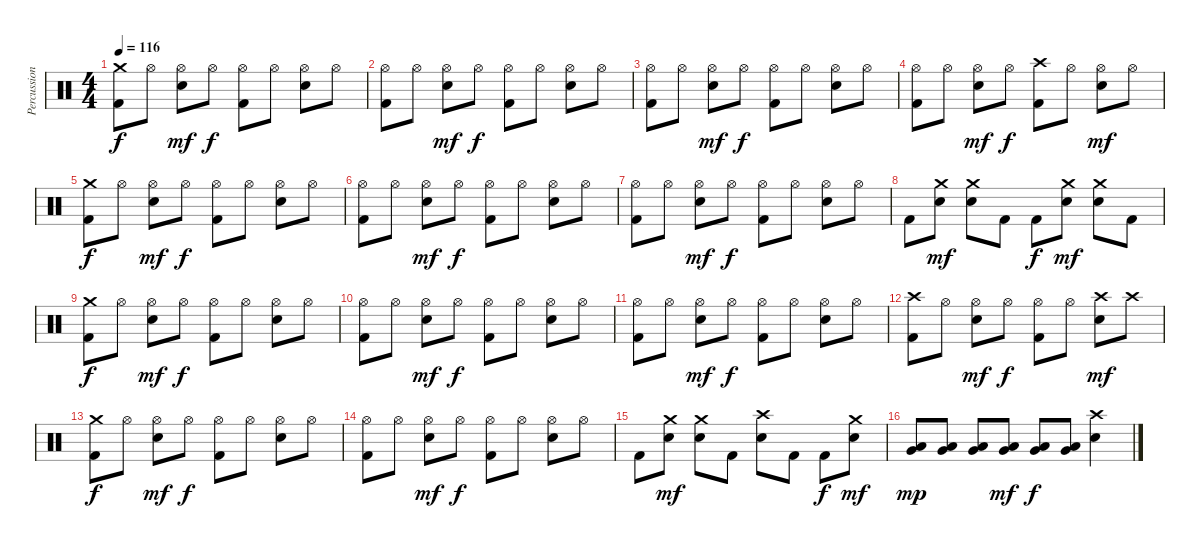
\track ("Percussion" "Percussion") {instrument percussion}
\staff {score}
\articulation defaults
\ts (4 4)
\tempo 116
\clef neutral
\ks c
("Kick (hit) 2" "Crash medium (hit)").8{dy f} "Hi-Hat (open)".8 ("Snare (hit) 2" "Hi-Hat (open)").8{dy mf} "Hi-Hat (open)".8{dy f} ("Kick (hit) 2" "Hi-Hat (open)").8 "Hi-Hat (open)".8 ("Snare (hit) 2" "Hi-Hat (open)").8 "Hi-Hat (open)".8 |
("Kick (hit) 2" "Hi-Hat (open)").8 "Hi-Hat (open)".8 ("Snare (hit) 2" "Hi-Hat (open)").8{dy mf} "Hi-Hat (open)".8{dy f} ("Kick (hit) 2" "Hi-Hat (open)").8 "Hi-Hat (open)".8 ("Snare (hit) 2" "Hi-Hat (open)").8 "Hi-Hat (open)".8 |
("Kick (hit) 2" "Hi-Hat (open)").8 "Hi-Hat (open)".8 ("Snare (hit) 2" "Hi-Hat (open)").8{dy mf} "Hi-Hat (open)".8{dy f} ("Kick (hit) 2" "Hi-Hat (open)").8 "Hi-Hat (open)".8 ("Snare (hit) 2" "Hi-Hat (open)").8 "Hi-Hat (open)".8 |
("Kick (hit) 2" "Hi-Hat (open)").8 "Hi-Hat (open)".8 ("Snare (hit) 2" "Hi-Hat (open)").8{dy mf} "Hi-Hat (open)".8{dy f} ("Kick (hit) 2" "Crash high (hit)").8 "Hi-Hat (open)".8 ("Snare (hit) 2" "Hi-Hat (open)").8{dy mf} "Hi-Hat (open)".8 |
("Kick (hit) 2" "Crash medium (hit)").8{dy f} "Hi-Hat (open)".8 ("Snare (hit) 2" "Hi-Hat (open)").8{dy mf} "Hi-Hat (open)".8{dy f} ("Kick (hit) 2" "Hi-Hat (open)").8 "Hi-Hat (open)".8 ("Snare (hit) 2" "Hi-Hat (open)").8 "Hi-Hat (open)".8 |
("Kick (hit) 2" "Hi-Hat (open)").8 "Hi-Hat (open)".8 ("Snare (hit) 2" "Hi-Hat (open)").8{dy mf} "Hi-Hat (open)".8{dy f} ("Kick (hit) 2" "Hi-Hat (open)").8 "Hi-Hat (open)".8 ("Snare (hit) 2" "Hi-Hat (open)").8 "Hi-Hat (open)".8 |
("Kick (hit) 2" "Hi-Hat (open)").8 "Hi-Hat (open)".8 ("Snare (hit) 2" "Hi-Hat (open)").8{dy mf} "Hi-Hat (open)".8{dy f} ("Kick (hit) 2" "Hi-Hat (open)").8 "Hi-Hat (open)".8 ("Snare (hit) 2" "Hi-Hat (open)").8 "Hi-Hat (open)".8 |
"Kick (hit) 2".8 ("Snare (hit) 2" "Crash medium (hit)").8{dy mf} ("Snare (hit) 2" "Crash medium (hit)").8 "Kick (hit) 2".8 "Kick (hit) 2".8{dy f} ("Snare (hit) 2" "Crash medium (hit)").8{dy mf} ("Snare (hit) 2" "Crash medium (hit)").8 "Kick (hit) 2".8 |
("Kick (hit) 2" "Crash medium (hit)").8{dy f} "Hi-Hat (open)".8 ("Snare (hit) 2" "Hi-Hat (open)").8{dy mf} "Hi-Hat (open)".8{dy f} ("Kick (hit) 2" "Hi-Hat (open)").8 "Hi-Hat (open)".8 ("Snare (hit) 2" "Hi-Hat (open)").8 "Hi-Hat (open)".8 |
("Kick (hit) 2" "Hi-Hat (open)").8 "Hi-Hat (open)".8 ("Snare (hit) 2" "Hi-Hat (open)").8{dy mf} "Hi-Hat (open)".8{dy f} ("Kick (hit) 2" "Hi-Hat (open)").8 "Hi-Hat (open)".8 ("Snare (hit) 2" "Hi-Hat (open)").8 "Hi-Hat (open)".8 |
("Kick (hit) 2" "Hi-Hat (open)").8 "Hi-Hat (open)".8 ("Snare (hit) 2" "Hi-Hat (open)").8{dy mf} "Hi-Hat (open)".8{dy f} ("Kick (hit) 2" "Hi-Hat (open)").8 "Hi-Hat (open)".8 ("Snare (hit) 2" "Hi-Hat (open)").8 "Hi-Hat (open)".8 |
("Kick (hit) 2" "Crash high (hit)").8 "Hi-Hat (open)".8 ("Snare (hit) 2" "Hi-Hat (open)").8{dy mf} "Hi-Hat (open)".8{dy f} ("Kick (hit) 2" "Hi-Hat (open)").8 "Hi-Hat (open)".8 ("Snare (hit) 2" "Crash high (hit)").8{dy mf} "Crash high (hit)".8 |
("Kick (hit) 2" "Crash medium (hit)").8{dy f} "Hi-Hat (open)".8 ("Snare (hit) 2" "Hi-Hat (open)").8{dy mf} "Hi-Hat (open)".8{dy f} ("Kick (hit) 2" "Hi-Hat (open)").8 "Hi-Hat (open)".8 ("Snare (hit) 2" "Hi-Hat (open)").8 "Hi-Hat (open)".8 |
("Kick (hit) 2" "Hi-Hat (open)").8 "Hi-Hat (open)".8 ("Snare (hit) 2" "Hi-Hat (open)").8{dy mf} "Hi-Hat (open)".8{dy f} ("Kick (hit) 2" "Hi-Hat (open)").8 "Hi-Hat (open)".8 ("Snare (hit) 2" "Hi-Hat (open)").8 "Hi-Hat (open)".8 |
"Kick (hit) 2".8 ("Snare (hit) 2" "Crash medium (hit)").8{dy mf} ("Snare (hit) 2" "Crash medium (hit)").8 "Kick (hit) 2".8 ("Snare (hit) 2" "Crash high (hit)").8 "Kick (hit) 2".8 "Kick (hit) 2".8{dy f} ("Snare (hit) 2" "Crash medium (hit)").8{dy mf} |
("Very Low Tom (hit)" "Low Tom (hit)").8{dy mp} ("Very Low Tom (hit)" "Low Tom (hit)").8 ("Very Low Tom (hit)" "Low Tom (hit)").8 ("Very Low Tom (hit)" "Low Tom (hit)").8{dy mf} ("Very Low Tom (hit)" "Low Tom (hit)").8{dy f} ("Very Low Tom (hit)" "Low Tom (hit)").8 ("Snare (hit) 2" "Crash high (hit)").4
